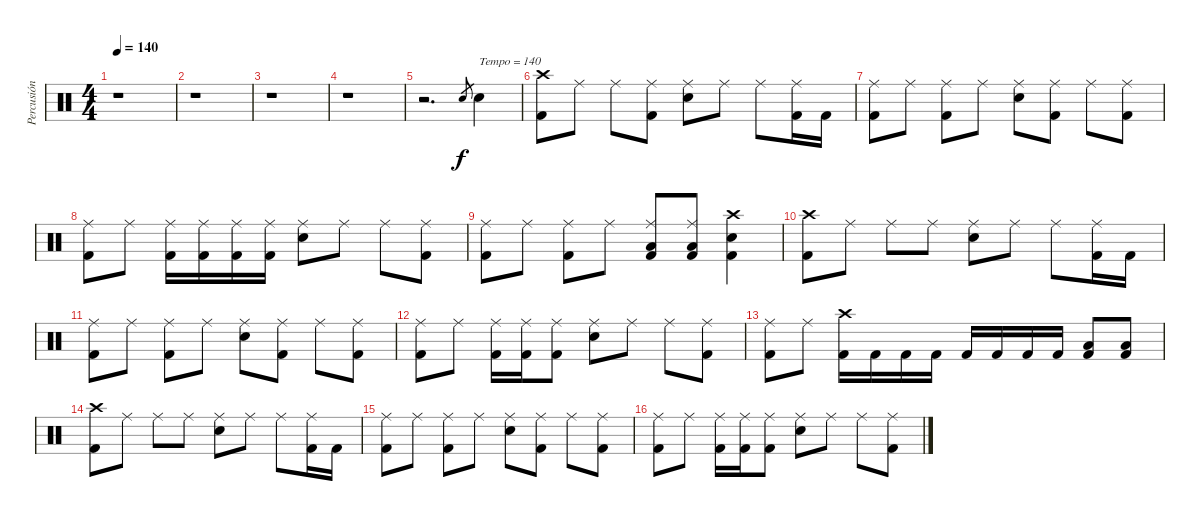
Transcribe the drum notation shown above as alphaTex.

\track ("Percusión" "Percusión") {instrument percussion}
\staff {score}
\articulation defaults
\ts (4 4)
\tempo 140
\clef neutral
\ks c
r.1{dy f} |
r.1 |
r.1 |
r.1 |
r.2{d} "Snare (hit) 2".8{gr} "Snare (hit) 2".4{txt "Tempo = 140"} |
("Kick (hit) 2" "Crash high (hit)").8 "Ride (middle)".8 "Ride (middle)".8 ("Kick (hit) 2" "Ride (middle)").8 ("Snare (hit) 2" "Ride (middle)").8 "Ride (middle)".8 "Ride (middle)".8 ("Kick (hit) 2" "Ride (middle)").16 "Kick (hit) 2".16 |
("Kick (hit) 2" "Ride (middle)").8 "Ride (middle)".8 ("Kick (hit) 2" "Ride (middle)").8 "Ride (middle)".8 ("Snare (hit) 2" "Ride (middle)").8 ("Kick (hit) 2" "Ride (middle)").8 "Ride (middle)".8 ("Kick (hit) 2" "Ride (middle)").8 |
("Kick (hit) 2" "Ride (middle)").8 "Ride (middle)".8 ("Kick (hit) 2" "Ride (middle)").16 ("Kick (hit) 2" "Ride (middle)").16 ("Kick (hit) 2" "Ride (middle)").16 ("Kick (hit) 2" "Ride (middle)").16 ("Snare (hit) 2" "Ride (middle)").8 "Ride (middle)".8 "Ride (middle)".8 ("Kick (hit) 2" "Ride (middle)").8 |
("Kick (hit) 2" "Ride (middle)").8 "Ride (middle)".8 ("Kick (hit) 2" "Ride (middle)").8 "Ride (middle)".8 ("Kick (hit) 2" "Low Tom (hit)" "Ride (middle)").8 ("Kick (hit) 2" "Low Tom (hit)" "Ride (middle)").8 ("Kick (hit) 2" "Snare (hit) 2" "Crash high (hit)").4 |
("Kick (hit) 2" "Crash high (hit)").8 "Ride (middle)".8 "Ride (middle)".8 "Ride (middle)".8 ("Snare (hit) 2" "Ride (middle)").8 "Ride (middle)".8 "Ride (middle)".8 ("Kick (hit) 2" "Ride (middle)").16 "Kick (hit) 2".16 |
("Kick (hit) 2" "Ride (middle)").8 "Ride (middle)".8 ("Kick (hit) 2" "Ride (middle)").8 "Ride (middle)".8 ("Snare (hit) 2" "Ride (middle)").8 ("Kick (hit) 2" "Ride (middle)").8 "Ride (middle)".8 ("Kick (hit) 2" "Ride (middle)").8 |
("Kick (hit) 2" "Ride (middle)").8 "Ride (middle)".8 ("Kick (hit) 2" "Ride (middle)").16 ("Kick (hit) 2" "Ride (middle)").16 ("Kick (hit) 2" "Ride (middle)").8 ("Snare (hit) 2" "Ride (middle)").8 "Ride (middle)".8 "Ride (middle)".8 ("Kick (hit) 2" "Ride (middle)").8 |
("Kick (hit) 2" "Ride (middle)").8 "Ride (middle)".8 ("Kick (hit) 2" "Crash high (hit)").16 "Kick (hit) 2".16 "Kick (hit) 2".16 "Kick (hit) 2".16 "Kick (hit) 2".16 "Kick (hit) 2".16 "Kick (hit) 2".16 "Kick (hit) 2".16 ("Kick (hit) 2" "Low Tom (hit)").8 ("Kick (hit) 2" "Low Tom (hit)").8 |
("Kick (hit) 2" "Crash high (hit)").8 "Ride (middle)".8 "Ride (middle)".8 "Ride (middle)".8 ("Snare (hit) 2" "Ride (middle)").8 "Ride (middle)".8 "Ride (middle)".8 ("Kick (hit) 2" "Ride (middle)").16 "Kick (hit) 2".16 |
("Kick (hit) 2" "Ride (middle)").8 "Ride (middle)".8 ("Kick (hit) 2" "Ride (middle)").8 "Ride (middle)".8 ("Snare (hit) 2" "Ride (middle)").8 ("Kick (hit) 2" "Ride (middle)").8 "Ride (middle)".8 ("Kick (hit) 2" "Ride (middle)").8 |
("Kick (hit) 2" "Ride (middle)").8 "Ride (middle)".8 ("Kick (hit) 2" "Ride (middle)").16 ("Kick (hit) 2" "Ride (middle)").16 ("Kick (hit) 2" "Ride (middle)").8 ("Snare (hit) 2" "Ride (middle)").8 "Ride (middle)".8 "Ride (middle)".8 ("Kick (hit) 2" "Ride (middle)").8
